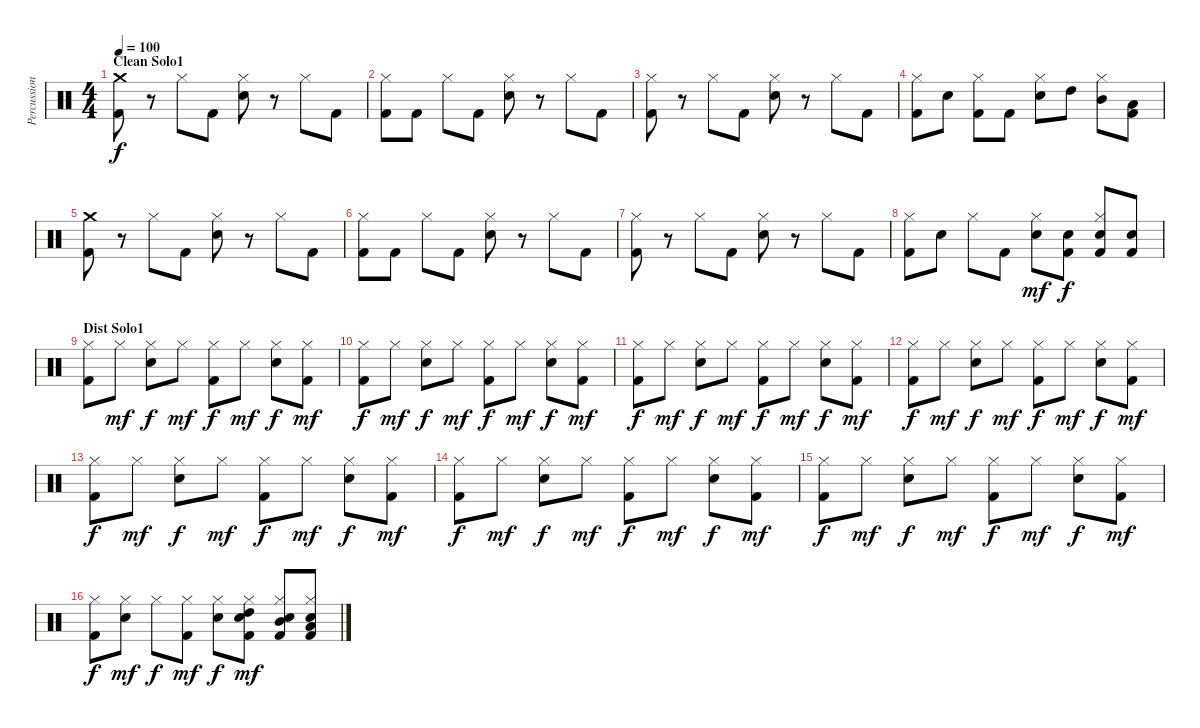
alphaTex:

\track ("Percussion" "Percussion") {instrument percussion}
\staff {score}
\articulation defaults
\ts (4 4)
\section ("" "Clean Solo1")
\tempo 100
\clef neutral
\ks c
("Crash medium (hit)" "Kick (hit) 2").8{dy f} r.8 "Hi-Hat (closed)".8 "Kick (hit) 2".8 ("Hi-Hat (closed)" "Snare (hit) 2").8 r.8 "Hi-Hat (closed)".8 "Kick (hit) 2".8 |
("Hi-Hat (closed)" "Kick (hit) 2").8 "Kick (hit) 2".8 "Hi-Hat (closed)".8 "Kick (hit) 2".8 ("Hi-Hat (closed)" "Snare (hit) 2").8 r.8 "Hi-Hat (closed)".8 "Kick (hit) 2".8 |
("Hi-Hat (closed)" "Kick (hit) 2").8 r.8 "Hi-Hat (closed)".8 "Kick (hit) 2".8 ("Hi-Hat (closed)" "Snare (hit) 2").8 r.8 "Hi-Hat (closed)".8 "Kick (hit) 2".8 |
("Hi-Hat (closed)" "Kick (hit) 2").8 "Snare (hit) 2".8 ("Hi-Hat (closed)" "Kick (hit) 2").8 "Kick (hit) 2".8 ("Hi-Hat (closed)" "Snare (hit) 2").8 "High Tom (hit)".8 ("Hi-Hat (closed)" "Mid Tom (hit)").8 ("Low Tom (hit)" "Kick (hit) 2").8 |
("Crash medium (hit)" "Kick (hit) 2").8 r.8 "Hi-Hat (closed)".8 "Kick (hit) 2".8 ("Hi-Hat (closed)" "Snare (hit) 2").8 r.8 "Hi-Hat (closed)".8 "Kick (hit) 2".8 |
("Hi-Hat (closed)" "Kick (hit) 2").8 "Kick (hit) 2".8 "Hi-Hat (closed)".8 "Kick (hit) 2".8 ("Hi-Hat (closed)" "Snare (hit) 2").8 r.8 "Hi-Hat (closed)".8 "Kick (hit) 2".8 |
("Hi-Hat (closed)" "Kick (hit) 2").8 r.8 "Hi-Hat (closed)".8 "Kick (hit) 2".8 ("Hi-Hat (closed)" "Snare (hit) 2").8 r.8 "Hi-Hat (closed)".8 "Kick (hit) 2".8 |
("Hi-Hat (closed)" "Kick (hit) 2").8 "Snare (hit) 2".8 "Hi-Hat (closed)".8 "Kick (hit) 2".8 ("Hi-Hat (closed)" "Electric Snare (hit)").8{dy mf} ("Snare (hit) 2" "Kick (hit) 2").8{dy f} ("Hi-Hat (closed)" "Snare (hit) 2" "Kick (hit) 2").8 ("Snare (hit) 2" "Kick (hit) 2").8 |
\section ("" "Dist Solo1")
("Hi-Hat (closed)" "Kick (hit) 2").8{volume 14} "Hi-Hat (closed)".8{dy mf} ("Hi-Hat (closed)" "Snare (hit) 2").8{dy f} "Hi-Hat (closed)".8{dy mf} ("Hi-Hat (closed)" "Kick (hit) 2").8{dy f} "Hi-Hat (closed)".8{dy mf} ("Hi-Hat (closed)" "Snare (hit) 2").8{dy f} ("Hi-Hat (closed)" "Kick (hit) 2").8{dy mf} |
("Hi-Hat (closed)" "Kick (hit) 2").8{dy f} "Hi-Hat (closed)".8{dy mf} ("Hi-Hat (closed)" "Snare (hit) 2").8{dy f} "Hi-Hat (closed)".8{dy mf} ("Hi-Hat (closed)" "Kick (hit) 2").8{dy f} "Hi-Hat (closed)".8{dy mf} ("Hi-Hat (closed)" "Snare (hit) 2").8{dy f} ("Hi-Hat (closed)" "Kick (hit) 2").8{dy mf} |
("Hi-Hat (closed)" "Kick (hit) 2").8{dy f} "Hi-Hat (closed)".8{dy mf} ("Hi-Hat (closed)" "Snare (hit) 2").8{dy f} "Hi-Hat (closed)".8{dy mf} ("Hi-Hat (closed)" "Kick (hit) 2").8{dy f} "Hi-Hat (closed)".8{dy mf} ("Hi-Hat (closed)" "Snare (hit) 2").8{dy f} ("Hi-Hat (closed)" "Kick (hit) 2").8{dy mf} |
("Hi-Hat (closed)" "Kick (hit) 2").8{dy f} "Hi-Hat (closed)".8{dy mf} ("Hi-Hat (closed)" "Snare (hit) 2").8{dy f} "Hi-Hat (closed)".8{dy mf} ("Hi-Hat (closed)" "Kick (hit) 2").8{dy f} "Hi-Hat (closed)".8{dy mf} ("Hi-Hat (closed)" "Snare (hit) 2").8{dy f} ("Hi-Hat (closed)" "Kick (hit) 2").8{dy mf} |
("Hi-Hat (closed)" "Kick (hit) 2").8{dy f} "Hi-Hat (closed)".8{dy mf} ("Hi-Hat (closed)" "Snare (hit) 2").8{dy f} "Hi-Hat (closed)".8{dy mf} ("Hi-Hat (closed)" "Kick (hit) 2").8{dy f} "Hi-Hat (closed)".8{dy mf} ("Hi-Hat (closed)" "Snare (hit) 2").8{dy f} ("Hi-Hat (closed)" "Kick (hit) 2").8{dy mf} |
("Hi-Hat (closed)" "Kick (hit) 2").8{dy f} "Hi-Hat (closed)".8{dy mf} ("Hi-Hat (closed)" "Snare (hit) 2").8{dy f} "Hi-Hat (closed)".8{dy mf} ("Hi-Hat (closed)" "Kick (hit) 2").8{dy f} "Hi-Hat (closed)".8{dy mf} ("Hi-Hat (closed)" "Snare (hit) 2").8{dy f} ("Hi-Hat (closed)" "Kick (hit) 2").8{dy mf} |
("Hi-Hat (closed)" "Kick (hit) 2").8{dy f} "Hi-Hat (closed)".8{dy mf} ("Hi-Hat (closed)" "Snare (hit) 2").8{dy f} "Hi-Hat (closed)".8{dy mf} ("Hi-Hat (closed)" "Kick (hit) 2").8{dy f} "Hi-Hat (closed)".8{dy mf} ("Hi-Hat (closed)" "Snare (hit) 2").8{dy f} ("Hi-Hat (closed)" "Kick (hit) 2").8{dy mf} |
("Hi-Hat (closed)" "Kick (hit) 2").8{dy f} ("Hi-Hat (closed)" "Snare (hit) 2").8{dy mf} "Hi-Hat (closed)".8{dy f} ("Hi-Hat (closed)" "Kick (hit) 2").8{dy mf} ("Hi-Hat (closed)" "Snare (hit) 2").8{dy f} ("Hi-Hat (closed)" "High Tom (hit)" "Snare (hit) 2" "Kick (hit) 2").8{dy mf} ("Hi-Hat (closed)" "Mid Tom (hit)" "Snare (hit) 2" "Kick (hit) 2").8 ("Hi-Hat (closed)" "Low Tom (hit)" "Snare (hit) 2" "Kick (hit) 2").8
